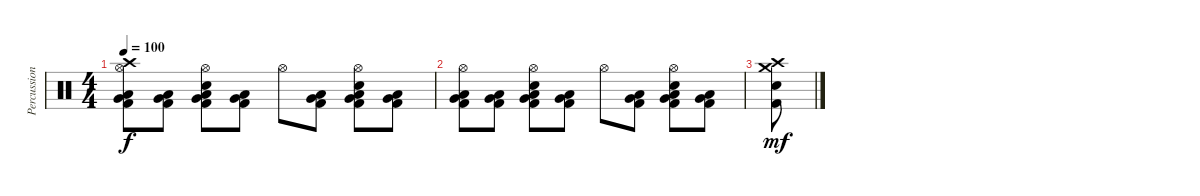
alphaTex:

\track ("Percussion" "Percussion") {instrument percussion}
\staff {score}
\articulation defaults
\ts (4 4)
\tempo 100
\clef neutral
\ks c
("Crash high (hit)" "Hi-Hat (open)" "Low Tom (hit)" "Very Low Tom (hit)" "Kick (hit) 2").8{dy f} ("Low Tom (hit)" "Very Low Tom (hit)" "Kick (hit) 2").8 ("Hi-Hat (open)" "Very Low Tom (hit)" "Low Floor Tom (hit)" "Electric Snare (hit)" "Kick (hit) 2").8 ("Low Tom (hit)" "Very Low Tom (hit)" "Kick (hit) 2").8 "Hi-Hat (open)".8 ("Low Tom (hit)" "Very Low Tom (hit)" "Kick (hit) 2").8 ("Hi-Hat (open)" "Very Low Tom (hit)" "Low Floor Tom (hit)" "Electric Snare (hit)" "Kick (hit) 2").8 ("Low Tom (hit)" "Very Low Tom (hit)" "Kick (hit) 2").8 |
("Hi-Hat (open)" "Low Tom (hit)" "Very Low Tom (hit)" "Kick (hit) 2").8 ("Low Tom (hit)" "Very Low Tom (hit)" "Kick (hit) 2").8 ("Hi-Hat (open)" "Very Low Tom (hit)" "Low Floor Tom (hit)" "Electric Snare (hit)" "Kick (hit) 2").8 ("Low Tom (hit)" "Very Low Tom (hit)" "Kick (hit) 2").8 "Hi-Hat (open)".8 ("Low Tom (hit)" "Very Low Tom (hit)" "Kick (hit) 2").8 ("Hi-Hat (open)" "Very Low Tom (hit)" "Low Floor Tom (hit)" "Electric Snare (hit)" "Kick (hit) 2").8 ("Low Tom (hit)" "Very Low Tom (hit)" "Kick (hit) 2").8 |
("Crash high (hit)" "Crash medium (hit)" "Electric Snare (hit)" "Kick (hit) 2").8{dy mf}
